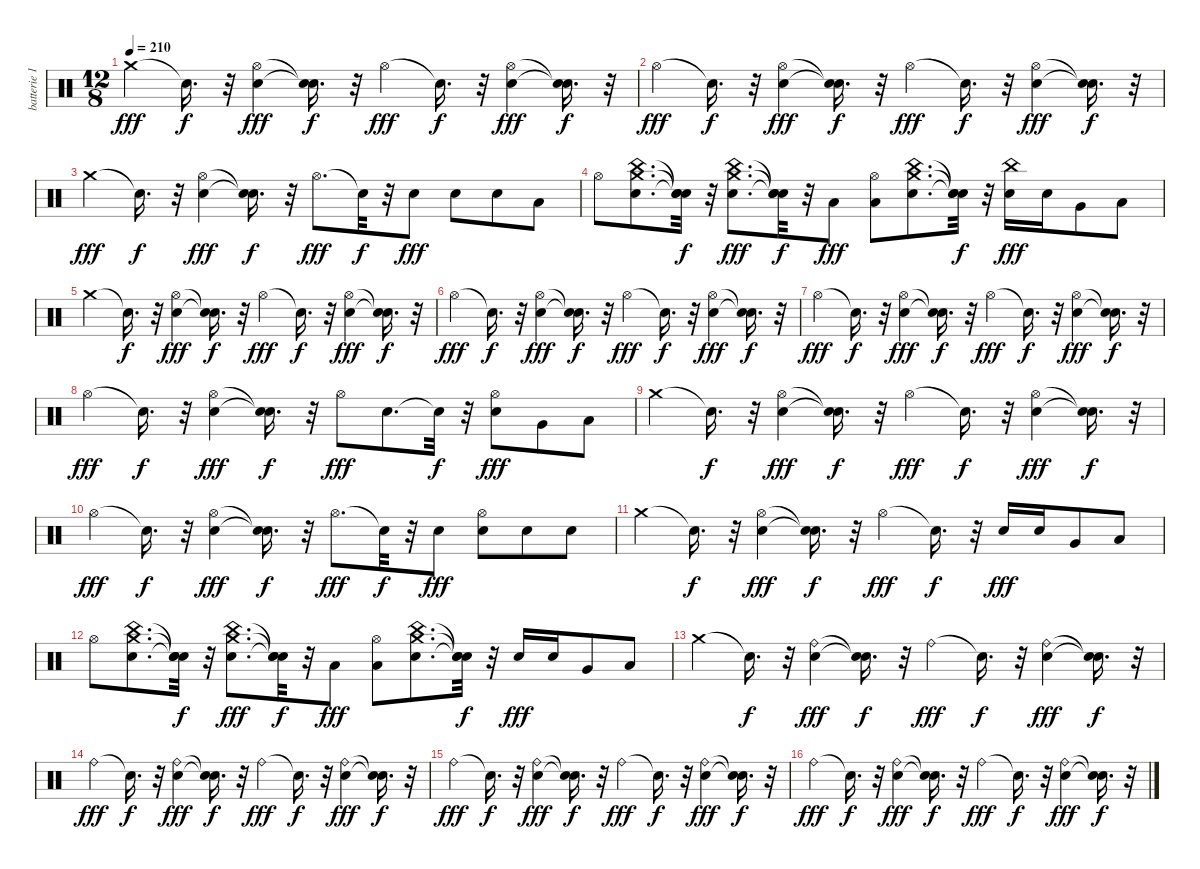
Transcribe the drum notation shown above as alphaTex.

\track ("batterie 1" "batterie 1") {instrument percussion}
\staff {score}
\articulation defaults
\ts (12 8)
\tempo 210
\clef neutral
\ks c "Crash medium (hit)".4{dy fff} "Snare (hit)"{t}.16{d dy f}
r.32 ("Electric Snare (hit)" "Hi-Hat (open)").4{dy fff} ("Snare (hit)"{t} "Snare (hit)"{t}).16{d dy f} r.32 "Hi-Hat (open)".4{dy fff} "Snare (hit)"{t}.16{d dy f} r.32 ("Electric Snare (hit)" "Hi-Hat (open)").4{dy fff} ("Snare (hit)"{t} "Snare (hit)"{t}).16{d dy f} r.32 |
"Hi-Hat (open)".4{dy fff} "Snare (hit)"{t}.16{d dy f} r.32 ("Electric Snare (hit)" "Hi-Hat (open)").4{dy fff} ("Snare (hit)"{t} "Snare (hit)"{t}).16{d dy f} r.32 "Hi-Hat (open)".4{dy fff} "Snare (hit)"{t}.16{d dy f} r.32 ("Electric Snare (hit)" "Hi-Hat (open)").4{dy fff} ("Snare (hit)"{t} "Snare (hit)"{t}).16{d dy f} r.32 |
"Crash medium (hit)".4{dy fff} "Snare (hit)"{t}.16{d dy f} r.32 ("Electric Snare (hit)" "Hi-Hat (open)").4{dy fff} ("Snare (hit)"{t} "Snare (hit)"{t}).16{d dy f} r.32 "Hi-Hat (open)".8{d dy fff} "Snare (hit)"{t}.32{dy f} r.32 "Electric Snare (hit)".8{dy fff} "Electric Snare (hit)".8 "Electric Snare (hit)".8 "Low Floor Tom (hit)".8 |
"Hi-Hat (open)".8 ("Electric Snare (hit)" "China (hit)" "Crash medium (hit)").8{d} ("Snare (hit)"{t} "Snare (hit)"{t} "Snare (hit)"{t}).32{dy f} r.32 ("Electric Snare (hit)" "China (hit)" "Crash medium (hit)").8{d dy fff} ("Snare (hit)"{t} "Snare (hit)"{t} "Snare (hit)"{t}).32{dy f} r.32 "Low Floor Tom (hit)".8{dy fff} ("Low Floor Tom (hit)" "Hi-Hat (open)").8 ("Electric Snare (hit)" "China (hit)" "Crash medium (hit)").8{d} ("Snare (hit)"{t} "Snare (hit)"{t} "Snare (hit)"{t}).32{dy f} r.32 ("Electric Snare (hit)" "China (hit)").16{dy fff} "Electric Snare (hit)".16 "Very Low Tom (hit)".8 "Low Floor Tom (hit)".8 |
"Crash medium (hit)".4 "Snare (hit)"{t}.16{d dy f} r.32 ("Electric Snare (hit)" "Hi-Hat (open)").4{dy fff} ("Snare (hit)"{t} "Snare (hit)"{t}).16{d dy f} r.32 "Hi-Hat (open)".4{dy fff} "Snare (hit)"{t}.16{d dy f} r.32 ("Electric Snare (hit)" "Hi-Hat (open)").4{dy fff} ("Snare (hit)"{t} "Snare (hit)"{t}).16{d dy f} r.32 |
"Hi-Hat (open)".4{dy fff} "Snare (hit)"{t}.16{d dy f} r.32 ("Electric Snare (hit)" "Hi-Hat (open)").4{dy fff} ("Snare (hit)"{t} "Snare (hit)"{t}).16{d dy f} r.32 "Hi-Hat (open)".4{dy fff} "Snare (hit)"{t}.16{d dy f} r.32 ("Electric Snare (hit)" "Hi-Hat (open)").4{dy fff} ("Snare (hit)"{t} "Snare (hit)"{t}).16{d dy f} r.32 |
"Hi-Hat (open)".4{dy fff} "Snare (hit)"{t}.16{d dy f} r.32 ("Electric Snare (hit)" "Hi-Hat (open)").4{dy fff} ("Snare (hit)"{t} "Snare (hit)"{t}).16{d dy f} r.32 "Hi-Hat (open)".4{dy fff} "Snare (hit)"{t}.16{d dy f} r.32 ("Electric Snare (hit)" "Hi-Hat (open)").4{dy fff} ("Snare (hit)"{t} "Snare (hit)"{t}).16{d dy f} r.32 |
"Hi-Hat (open)".4{dy fff} "Snare (hit)"{t}.16{d dy f} r.32 ("Electric Snare (hit)" "Hi-Hat (open)").4{dy fff} ("Snare (hit)"{t} "Snare (hit)"{t}).16{d dy f} r.32 "Hi-Hat (open)".8{dy fff} "Electric Snare (hit)".8{d} "Snare (hit)"{t}.32{dy f} r.32 ("Electric Snare (hit)" "Hi-Hat (open)").8{dy fff} "Very Low Tom (hit)".8 "Low Floor Tom (hit)".8 |
"Crash medium (hit)".4 "Snare (hit)"{t}.16{d dy f} r.32 ("Electric Snare (hit)" "Hi-Hat (open)").4{dy fff} ("Snare (hit)"{t} "Snare (hit)"{t}).16{d dy f} r.32 "Hi-Hat (open)".4{dy fff} "Snare (hit)"{t}.16{d dy f} r.32 ("Electric Snare (hit)" "Hi-Hat (open)").4{dy fff} ("Snare (hit)"{t} "Snare (hit)"{t}).16{d dy f} r.32 |
"Hi-Hat (open)".4{dy fff} "Snare (hit)"{t}.16{d dy f} r.32 ("Electric Snare (hit)" "Hi-Hat (open)").4{dy fff} ("Snare (hit)"{t} "Snare (hit)"{t}).16{d dy f} r.32 "Hi-Hat (open)".8{d dy fff} "Snare (hit)"{t}.32{dy f} r.32 "Electric Snare (hit)".8{dy fff} ("Electric Snare (hit)" "Hi-Hat (open)").8 "Electric Snare (hit)".8 "Electric Snare (hit)".8 |
"Crash medium (hit)".4 "Snare (hit)"{t}.16{d dy f} r.32 ("Electric Snare (hit)" "Hi-Hat (open)").4{dy fff} ("Snare (hit)"{t} "Snare (hit)"{t}).16{d dy f} r.32 "Hi-Hat (open)".4{dy fff} "Snare (hit)"{t}.16{d dy f} r.32 "Electric Snare (hit)".16{dy fff} "Electric Snare (hit)".16 "Very Low Tom (hit)".8 "Low Floor Tom (hit)".8 |
"Hi-Hat (open)".8 ("Electric Snare (hit)" "China (hit)" "Crash medium (hit)").8{d} ("Snare (hit)"{t} "Snare (hit)"{t} "Snare (hit)"{t}).32{dy f} r.32 ("Electric Snare (hit)" "China (hit)" "Crash medium (hit)").8{d dy fff} ("Snare (hit)"{t} "Snare (hit)"{t} "Snare (hit)"{t}).32{dy f} r.32 "Low Floor Tom (hit)".8{dy fff} ("Low Floor Tom (hit)" "Hi-Hat (open)").8 ("Electric Snare (hit)" "China (hit)" "Crash medium (hit)").8{d} ("Snare (hit)"{t} "Snare (hit)"{t} "Snare (hit)"{t}).32{dy f} r.32 "Electric Snare (hit)".16{dy fff} "Electric Snare (hit)".16 "Very Low Tom (hit)".8 "Low Floor Tom (hit)".8 |
"Crash medium (hit)".4 "Snare (hit)"{t}.16{d dy f} r.32 ("Electric Snare (hit)" "Ride (bell)").4{dy fff} ("Snare (hit)"{t} "Snare (hit)"{t}).16{d dy f} r.32 "Ride (bell)".4{dy fff} "Snare (hit)"{t}.16{d dy f} r.32 ("Electric Snare (hit)" "Ride (bell)").4{dy fff} ("Snare (hit)"{t} "Snare (hit)"{t}).16{d dy f} r.32 |
"Ride (bell)".4{dy fff} "Snare (hit)"{t}.16{d dy f} r.32 ("Electric Snare (hit)" "Ride (bell)").4{dy fff} ("Snare (hit)"{t} "Snare (hit)"{t}).16{d dy f} r.32 "Ride (bell)".4{dy fff} "Snare (hit)"{t}.16{d dy f} r.32 ("Electric Snare (hit)" "Ride (bell)").4{dy fff} ("Snare (hit)"{t} "Snare (hit)"{t}).16{d dy f} r.32 |
"Ride (bell)".4{dy fff} "Snare (hit)"{t}.16{d dy f} r.32 ("Electric Snare (hit)" "Ride (bell)").4{dy fff} ("Snare (hit)"{t} "Snare (hit)"{t}).16{d dy f} r.32 "Ride (bell)".4{dy fff} "Snare (hit)"{t}.16{d dy f} r.32 ("Electric Snare (hit)" "Ride (bell)").4{dy fff} ("Snare (hit)"{t} "Snare (hit)"{t}).16{d dy f} r.32 |
"Ride (bell)".4{dy fff} "Snare (hit)"{t}.16{d dy f} r.32 ("Electric Snare (hit)" "Ride (bell)").4{dy fff} ("Snare (hit)"{t} "Snare (hit)"{t}).16{d dy f} r.32 "Ride (bell)".4{dy fff} "Snare (hit)"{t}.16{d dy f} r.32 ("Electric Snare (hit)" "Ride (bell)").4{dy fff} ("Snare (hit)"{t} "Snare (hit)"{t}).16{d dy f} r.32
